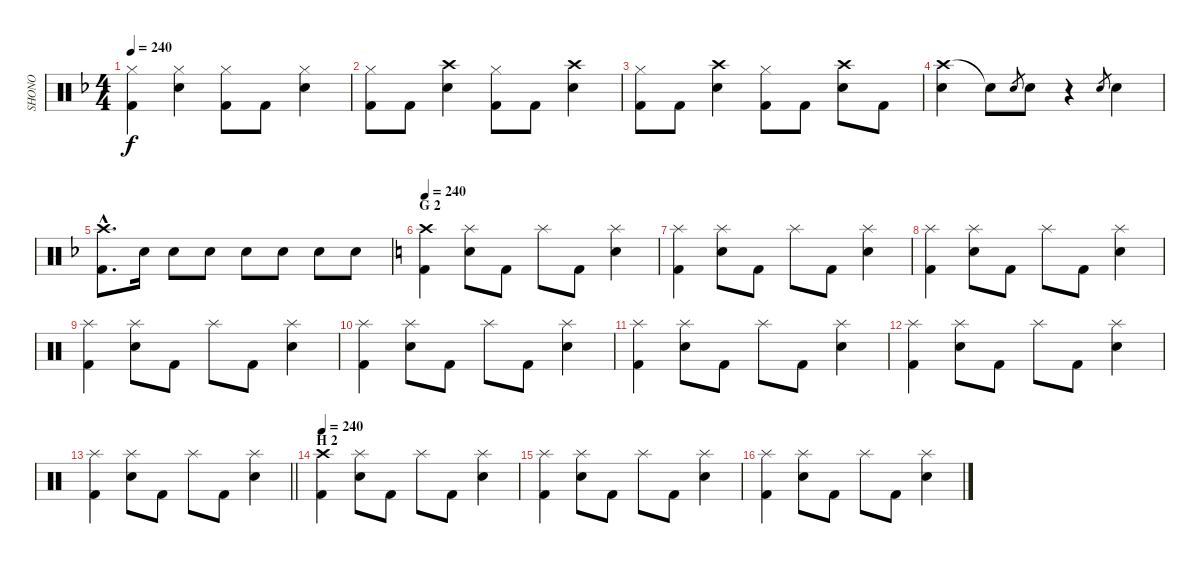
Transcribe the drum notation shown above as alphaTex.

\track ("SHONO" "SHONO") {instrument percussion}
\staff {score}
\articulation defaults
\ts (4 4)
\tempo 240
\clef neutral
\ks f
("Hi-Hat (closed)" "Kick (hit) 2").4{dy f} ("Hi-Hat (closed)" "Snare (hit) 2").4 ("Hi-Hat (closed)" "Kick (hit) 2").8 "Kick (hit) 2".8 ("Hi-Hat (closed)" "Snare (hit) 2").4 |
("Hi-Hat (closed)" "Kick (hit) 2").8 "Kick (hit) 2".8 ("Crash high (hit)" "Snare (hit) 2").4 ("Hi-Hat (closed)" "Kick (hit) 2").8 "Kick (hit) 2".8 ("Crash high (hit)" "Snare (hit) 2").4 |
("Hi-Hat (closed)" "Kick (hit) 2").8 "Kick (hit) 2".8 ("Crash high (hit)" "Snare (hit) 2").4 ("Hi-Hat (closed)" "Kick (hit) 2").8 "Kick (hit) 2".8 ("Crash high (hit)" "Snare (hit) 2").8 "Kick (hit) 2".8 |
("Crash high (hit)" "Snare (hit) 2").4 "Snare (hit)"{t}.8 "Snare (hit) 2".8{gr} "Snare (hit) 2".8 r.4 "Snare (hit) 2".8{gr} "Snare (hit) 2".4 |
("Crash high (hit)"{hac} "Kick (hit) 2"{hac}).8{d} "Snare (hit) 2".16 "Snare (hit) 2".8 "Snare (hit) 2".8 "Snare (hit) 2".8 "Snare (hit) 2".8 "Snare (hit) 2".8 "Snare (hit) 2".8 |
\section ("" "G 2")
\tempo 240
\ks c
("Crash high (hit)" "Kick (hit) 2").4 ("Splash (hit)" "Snare (hit) 2").8 "Kick (hit) 2".8 "Splash (hit)".8 "Kick (hit) 2".8 ("Splash (hit)" "Snare (hit) 2").4 |
("Splash (hit)" "Kick (hit) 2").4 ("Splash (hit)" "Snare (hit) 2").8 "Kick (hit) 2".8 "Splash (hit)".8 "Kick (hit) 2".8 ("Splash (hit)" "Snare (hit) 2").4 |
("Splash (hit)" "Kick (hit) 2").4 ("Splash (hit)" "Snare (hit) 2").8 "Kick (hit) 2".8 "Splash (hit)".8 "Kick (hit) 2".8 ("Splash (hit)" "Snare (hit) 2").4 |
("Splash (hit)" "Kick (hit) 2").4 ("Splash (hit)" "Snare (hit) 2").8 "Kick (hit) 2".8 "Splash (hit)".8 "Kick (hit) 2".8 ("Splash (hit)" "Snare (hit) 2").4 |
("Splash (hit)" "Kick (hit) 2").4 ("Splash (hit)" "Snare (hit) 2").8 "Kick (hit) 2".8 "Splash (hit)".8 "Kick (hit) 2".8 ("Splash (hit)" "Snare (hit) 2").4 |
("Splash (hit)" "Kick (hit) 2").4 ("Splash (hit)" "Snare (hit) 2").8 "Kick (hit) 2".8 "Splash (hit)".8 "Kick (hit) 2".8 ("Splash (hit)" "Snare (hit) 2").4 |
("Splash (hit)" "Kick (hit) 2").4 ("Splash (hit)" "Snare (hit) 2").8 "Kick (hit) 2".8 "Splash (hit)".8 "Kick (hit) 2".8 ("Splash (hit)" "Snare (hit) 2").4 |
\barLineRight lightlight
("Splash (hit)" "Kick (hit) 2").4 ("Splash (hit)" "Snare (hit) 2").8 "Kick (hit) 2".8 "Splash (hit)".8 "Kick (hit) 2".8 ("Splash (hit)" "Snare (hit) 2").4 |
\section ("" "H 2")
\tempo 240
("Crash high (hit)" "Kick (hit) 2").4 ("Splash (hit)" "Snare (hit) 2").8 "Kick (hit) 2".8 "Splash (hit)".8 "Kick (hit) 2".8 ("Splash (hit)" "Snare (hit) 2").4 |
("Splash (hit)" "Kick (hit) 2").4 ("Splash (hit)" "Snare (hit) 2").8 "Kick (hit) 2".8 "Splash (hit)".8 "Kick (hit) 2".8 ("Splash (hit)" "Snare (hit) 2").4 |
("Splash (hit)" "Kick (hit) 2").4 ("Splash (hit)" "Snare (hit) 2").8 "Kick (hit) 2".8 "Splash (hit)".8 "Kick (hit) 2".8 ("Splash (hit)" "Snare (hit) 2").4
